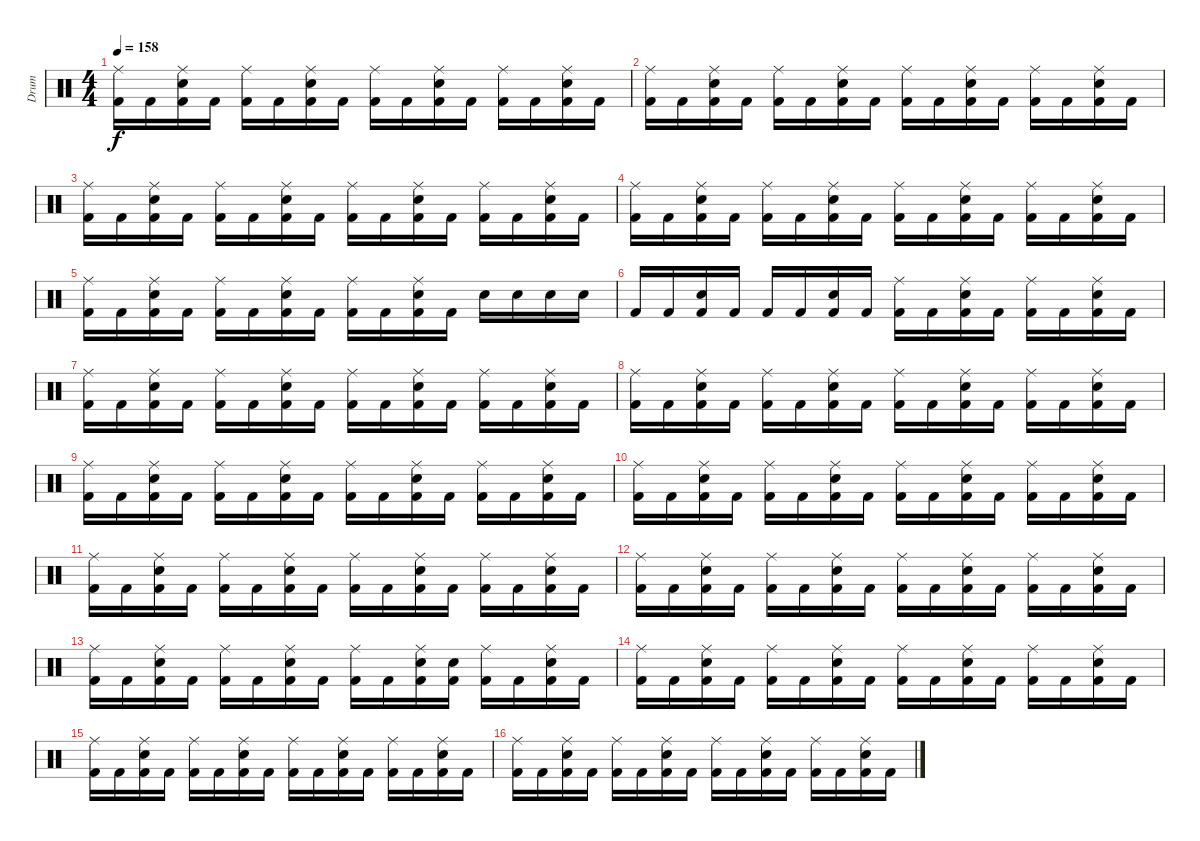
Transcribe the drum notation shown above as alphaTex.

\track ("Drum" "Drum") {instrument percussion}
\staff {score}
\articulation defaults
\ts (4 4)
\tempo 158
\clef neutral
\ks c
("Kick (hit) 2" "Ride (middle)").16{dy f} "Kick (hit) 2".16 ("Electric Snare (hit)" "Kick (hit) 2" "Ride (middle)").16 "Kick (hit) 2".16 ("Kick (hit) 2" "Ride (middle)").16 "Kick (hit) 2".16 ("Electric Snare (hit)" "Kick (hit) 2" "Ride (middle)").16 "Kick (hit) 2".16 ("Kick (hit) 2" "Ride (middle)").16 "Kick (hit) 2".16 ("Electric Snare (hit)" "Kick (hit) 2" "Ride (middle)").16 "Kick (hit) 2".16 ("Kick (hit) 2" "Ride (middle)").16 "Kick (hit) 2".16 ("Electric Snare (hit)" "Kick (hit) 2" "Ride (middle)").16 "Kick (hit) 2".16 |
("Kick (hit) 2" "Ride (middle)").16 "Kick (hit) 2".16 ("Electric Snare (hit)" "Kick (hit) 2" "Ride (middle)").16 "Kick (hit) 2".16 ("Kick (hit) 2" "Ride (middle)").16 "Kick (hit) 2".16 ("Electric Snare (hit)" "Kick (hit) 2" "Ride (middle)").16 "Kick (hit) 2".16 ("Kick (hit) 2" "Ride (middle)").16 "Kick (hit) 2".16 ("Electric Snare (hit)" "Kick (hit) 2" "Ride (middle)").16 "Kick (hit) 2".16 ("Kick (hit) 2" "Ride (middle)").16 "Kick (hit) 2".16 ("Electric Snare (hit)" "Kick (hit) 2" "Ride (middle)").16 "Kick (hit) 2".16 |
("Kick (hit) 2" "Ride (middle)").16 "Kick (hit) 2".16 ("Electric Snare (hit)" "Kick (hit) 2" "Ride (middle)").16 "Kick (hit) 2".16 ("Kick (hit) 2" "Ride (middle)").16 "Kick (hit) 2".16 ("Electric Snare (hit)" "Kick (hit) 2" "Ride (middle)").16 "Kick (hit) 2".16 ("Kick (hit) 2" "Ride (middle)").16 "Kick (hit) 2".16 ("Electric Snare (hit)" "Kick (hit) 2" "Ride (middle)").16 "Kick (hit) 2".16 ("Kick (hit) 2" "Ride (middle)").16 "Kick (hit) 2".16 ("Electric Snare (hit)" "Kick (hit) 2" "Ride (middle)").16 "Kick (hit) 2".16 |
("Kick (hit) 2" "Ride (middle)").16 "Kick (hit) 2".16 ("Electric Snare (hit)" "Kick (hit) 2" "Ride (middle)").16 "Kick (hit) 2".16 ("Kick (hit) 2" "Ride (middle)").16 "Kick (hit) 2".16 ("Electric Snare (hit)" "Kick (hit) 2" "Ride (middle)").16 "Kick (hit) 2".16 ("Kick (hit) 2" "Ride (middle)").16 "Kick (hit) 2".16 ("Electric Snare (hit)" "Kick (hit) 2" "Ride (middle)").16 "Kick (hit) 2".16 ("Kick (hit) 2" "Ride (middle)").16 "Kick (hit) 2".16 ("Electric Snare (hit)" "Kick (hit) 2" "Ride (middle)").16 "Kick (hit) 2".16 |
("Kick (hit) 2" "Ride (middle)").16 "Kick (hit) 2".16 ("Electric Snare (hit)" "Kick (hit) 2" "Ride (middle)").16 "Kick (hit) 2".16 ("Kick (hit) 2" "Ride (middle)").16 "Kick (hit) 2".16 ("Electric Snare (hit)" "Kick (hit) 2" "Ride (middle)").16 "Kick (hit) 2".16 ("Kick (hit) 2" "Ride (middle)").16 "Kick (hit) 2".16 ("Electric Snare (hit)" "Kick (hit) 2" "Ride (middle)").16 "Kick (hit) 2".16 "Electric Snare (hit)".16 "Electric Snare (hit)".16 "Electric Snare (hit)".16 "Electric Snare (hit)".16 |
"Kick (hit) 2".16 "Kick (hit) 2".16 ("Electric Snare (hit)" "Kick (hit) 2").16 "Kick (hit) 2".16 "Kick (hit) 2".16 "Kick (hit) 2".16 ("Electric Snare (hit)" "Kick (hit) 2").16 "Kick (hit) 2".16 ("Kick (hit) 2" "Ride (middle)").16 "Kick (hit) 2".16 ("Electric Snare (hit)" "Kick (hit) 2" "Ride (middle)").16 "Kick (hit) 2".16 ("Kick (hit) 2" "Ride (middle)").16 "Kick (hit) 2".16 ("Electric Snare (hit)" "Kick (hit) 2" "Ride (middle)").16 "Kick (hit) 2".16 |
("Kick (hit) 2" "Ride (middle)").16 "Kick (hit) 2".16 ("Electric Snare (hit)" "Kick (hit) 2" "Ride (middle)").16 "Kick (hit) 2".16 ("Kick (hit) 2" "Ride (middle)").16 "Kick (hit) 2".16 ("Electric Snare (hit)" "Kick (hit) 2" "Ride (middle)").16 "Kick (hit) 2".16 ("Kick (hit) 2" "Ride (middle)").16 "Kick (hit) 2".16 ("Electric Snare (hit)" "Kick (hit) 2" "Ride (middle)").16 "Kick (hit) 2".16 ("Kick (hit) 2" "Ride (middle)").16 "Kick (hit) 2".16 ("Electric Snare (hit)" "Kick (hit) 2" "Ride (middle)").16 "Kick (hit) 2".16 |
("Kick (hit) 2" "Ride (middle)").16 "Kick (hit) 2".16 ("Electric Snare (hit)" "Kick (hit) 2" "Ride (middle)").16 "Kick (hit) 2".16 ("Kick (hit) 2" "Ride (middle)").16 "Kick (hit) 2".16 ("Electric Snare (hit)" "Kick (hit) 2" "Ride (middle)").16 "Kick (hit) 2".16 ("Kick (hit) 2" "Ride (middle)").16 "Kick (hit) 2".16 ("Electric Snare (hit)" "Kick (hit) 2" "Ride (middle)").16 "Kick (hit) 2".16 ("Kick (hit) 2" "Ride (middle)").16 "Kick (hit) 2".16 ("Electric Snare (hit)" "Kick (hit) 2" "Ride (middle)").16 "Kick (hit) 2".16 |
("Kick (hit) 2" "Ride (middle)").16 "Kick (hit) 2".16 ("Electric Snare (hit)" "Kick (hit) 2" "Ride (middle)").16 "Kick (hit) 2".16 ("Kick (hit) 2" "Ride (middle)").16 "Kick (hit) 2".16 ("Electric Snare (hit)" "Kick (hit) 2" "Ride (middle)").16 "Kick (hit) 2".16 ("Kick (hit) 2" "Ride (middle)").16 "Kick (hit) 2".16 ("Electric Snare (hit)" "Kick (hit) 2" "Ride (middle)").16 "Kick (hit) 2".16 ("Kick (hit) 2" "Ride (middle)").16 "Kick (hit) 2".16 ("Electric Snare (hit)" "Kick (hit) 2" "Ride (middle)").16 "Kick (hit) 2".16 |
("Kick (hit) 2" "Ride (middle)").16 "Kick (hit) 2".16 ("Electric Snare (hit)" "Kick (hit) 2" "Ride (middle)").16 "Kick (hit) 2".16 ("Kick (hit) 2" "Ride (middle)").16 "Kick (hit) 2".16 ("Electric Snare (hit)" "Kick (hit) 2" "Ride (middle)").16 "Kick (hit) 2".16 ("Kick (hit) 2" "Ride (middle)").16 "Kick (hit) 2".16 ("Electric Snare (hit)" "Kick (hit) 2" "Ride (middle)").16 "Kick (hit) 2".16 ("Kick (hit) 2" "Ride (middle)").16 "Kick (hit) 2".16 ("Electric Snare (hit)" "Kick (hit) 2" "Ride (middle)").16 "Kick (hit) 2".16 |
("Kick (hit) 2" "Ride (middle)").16 "Kick (hit) 2".16 ("Electric Snare (hit)" "Kick (hit) 2" "Ride (middle)").16 "Kick (hit) 2".16 ("Kick (hit) 2" "Ride (middle)").16 "Kick (hit) 2".16 ("Electric Snare (hit)" "Kick (hit) 2" "Ride (middle)").16 "Kick (hit) 2".16 ("Kick (hit) 2" "Ride (middle)").16 "Kick (hit) 2".16 ("Electric Snare (hit)" "Kick (hit) 2" "Ride (middle)").16 "Kick (hit) 2".16 ("Kick (hit) 2" "Ride (middle)").16 "Kick (hit) 2".16 ("Electric Snare (hit)" "Kick (hit) 2" "Ride (middle)").16 "Kick (hit) 2".16 |
("Kick (hit) 2" "Ride (middle)").16 "Kick (hit) 2".16 ("Electric Snare (hit)" "Kick (hit) 2" "Ride (middle)").16 "Kick (hit) 2".16 ("Kick (hit) 2" "Ride (middle)").16 "Kick (hit) 2".16 ("Electric Snare (hit)" "Kick (hit) 2" "Ride (middle)").16 "Kick (hit) 2".16 ("Kick (hit) 2" "Ride (middle)").16 "Kick (hit) 2".16 ("Electric Snare (hit)" "Kick (hit) 2" "Ride (middle)").16 "Kick (hit) 2".16 ("Kick (hit) 2" "Ride (middle)").16 "Kick (hit) 2".16 ("Electric Snare (hit)" "Kick (hit) 2" "Ride (middle)").16 "Kick (hit) 2".16 |
("Kick (hit) 2" "Ride (middle)").16 "Kick (hit) 2".16 ("Electric Snare (hit)" "Kick (hit) 2" "Ride (middle)").16 "Kick (hit) 2".16 ("Kick (hit) 2" "Ride (middle)").16 "Kick (hit) 2".16 ("Electric Snare (hit)" "Kick (hit) 2" "Ride (middle)").16 "Kick (hit) 2".16 ("Kick (hit) 2" "Ride (middle)").16 "Kick (hit) 2".16 ("Electric Snare (hit)" "Kick (hit) 2" "Ride (middle)").16 ("Electric Snare (hit)" "Kick (hit) 2").16 ("Kick (hit) 2" "Ride (middle)").16 "Kick (hit) 2".16 ("Electric Snare (hit)" "Kick (hit) 2" "Ride (middle)").16 "Kick (hit) 2".16 |
("Kick (hit) 2" "Ride (middle)").16 "Kick (hit) 2".16 ("Electric Snare (hit)" "Kick (hit) 2" "Ride (middle)").16 "Kick (hit) 2".16 ("Kick (hit) 2" "Ride (middle)").16 "Kick (hit) 2".16 ("Electric Snare (hit)" "Kick (hit) 2" "Ride (middle)").16 "Kick (hit) 2".16 ("Kick (hit) 2" "Ride (middle)").16 "Kick (hit) 2".16 ("Electric Snare (hit)" "Kick (hit) 2" "Ride (middle)").16 "Kick (hit) 2".16 ("Kick (hit) 2" "Ride (middle)").16 "Kick (hit) 2".16 ("Electric Snare (hit)" "Kick (hit) 2" "Ride (middle)").16 "Kick (hit) 2".16 |
("Kick (hit) 2" "Ride (middle)").16 "Kick (hit) 2".16 ("Electric Snare (hit)" "Kick (hit) 2" "Ride (middle)").16 "Kick (hit) 2".16 ("Kick (hit) 2" "Ride (middle)").16 "Kick (hit) 2".16 ("Electric Snare (hit)" "Kick (hit) 2" "Ride (middle)").16 "Kick (hit) 2".16 ("Kick (hit) 2" "Ride (middle)").16 "Kick (hit) 2".16 ("Electric Snare (hit)" "Kick (hit) 2" "Ride (middle)").16 "Kick (hit) 2".16 ("Kick (hit) 2" "Ride (middle)").16 "Kick (hit) 2".16 ("Electric Snare (hit)" "Kick (hit) 2" "Ride (middle)").16 "Kick (hit) 2".16 |
("Kick (hit) 2" "Ride (middle)").16 "Kick (hit) 2".16 ("Electric Snare (hit)" "Kick (hit) 2" "Ride (middle)").16 "Kick (hit) 2".16 ("Kick (hit) 2" "Ride (middle)").16 "Kick (hit) 2".16 ("Electric Snare (hit)" "Kick (hit) 2" "Ride (middle)").16 "Kick (hit) 2".16 ("Kick (hit) 2" "Ride (middle)").16 "Kick (hit) 2".16 ("Electric Snare (hit)" "Kick (hit) 2" "Ride (middle)").16 "Kick (hit) 2".16 ("Kick (hit) 2" "Ride (middle)").16 "Kick (hit) 2".16 ("Electric Snare (hit)" "Kick (hit) 2" "Ride (middle)").16 "Kick (hit) 2".16
